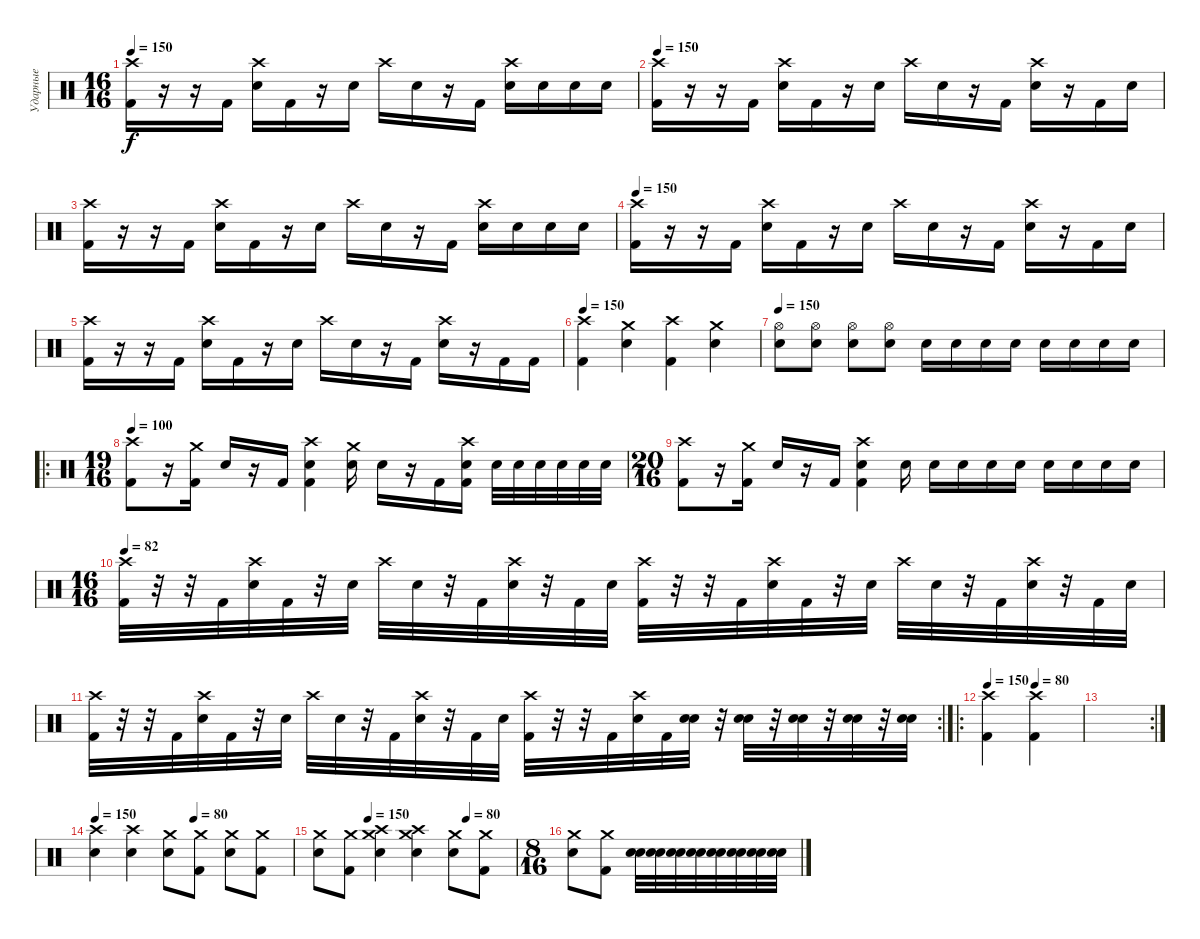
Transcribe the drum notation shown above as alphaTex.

\track ("Ударные" "Ударные") {instrument percussion}
\staff {score}
\articulation defaults
\ts (16 16)
\tempo 150
\clef neutral
\ks c
("Crash high (hit)" "Kick (hit) 2").16{dy f} r.16 r.16 "Kick (hit) 2".16 ("Crash high (hit)" "Electric Snare (hit)").16 "Kick (hit) 2".16 r.16 "Electric Snare (hit)".16 "Crash high (hit)".16 "Electric Snare (hit)".16 r.16 "Kick (hit) 2".16 ("Crash high (hit)" "Electric Snare (hit)").16 "Electric Snare (hit)".16 "Electric Snare (hit)".16 "Electric Snare (hit)".16 |
\tempo 150
("Crash high (hit)" "Kick (hit) 2").16 r.16 r.16 "Kick (hit) 2".16 ("Crash high (hit)" "Electric Snare (hit)").16 "Kick (hit) 2".16 r.16 "Electric Snare (hit)".16 "Crash high (hit)".16 "Electric Snare (hit)".16 r.16 "Kick (hit) 2".16 ("Crash high (hit)" "Electric Snare (hit)").16 r.16 "Kick (hit) 2".16 "Electric Snare (hit)".16 |
("Crash high (hit)" "Kick (hit) 2").16 r.16 r.16 "Kick (hit) 2".16 ("Crash high (hit)" "Electric Snare (hit)").16 "Kick (hit) 2".16 r.16 "Electric Snare (hit)".16 "Crash high (hit)".16 "Electric Snare (hit)".16 r.16 "Kick (hit) 2".16 ("Crash high (hit)" "Electric Snare (hit)").16 "Electric Snare (hit)".16 "Electric Snare (hit)".16 "Electric Snare (hit)".16 |
\tempo 150
("Crash high (hit)" "Kick (hit) 2").16 r.16 r.16 "Kick (hit) 2".16 ("Crash high (hit)" "Electric Snare (hit)").16 "Kick (hit) 2".16 r.16 "Electric Snare (hit)".16 "Crash high (hit)".16 "Electric Snare (hit)".16 r.16 "Kick (hit) 2".16 ("Crash high (hit)" "Electric Snare (hit)").16 r.16 "Kick (hit) 2".16 "Electric Snare (hit)".16 |
("Crash high (hit)" "Kick (hit) 2").16 r.16 r.16 "Kick (hit) 2".16 ("Crash high (hit)" "Electric Snare (hit)").16 "Kick (hit) 2".16 r.16 "Electric Snare (hit)".16 "Crash high (hit)".16 "Electric Snare (hit)".16 r.16 "Kick (hit) 2".16 ("Crash high (hit)" "Electric Snare (hit)").16 r.16 "Kick (hit) 2".16 "Kick (hit) 2".16 |
\tempo 150
("Crash high (hit)" "Kick (hit) 2").4 ("Electric Snare (hit)" "Crash medium (hit)").4 ("Kick (hit) 2" "Crash high (hit)").4 ("Crash medium (hit)" "Electric Snare (hit)").4 |
\tempo 150
("Hi-Hat (open)" "Snare (hit) 2").8 ("Hi-Hat (open)" "Snare (hit) 2").8 ("Hi-Hat (open)" "Snare (hit) 2").8 ("Hi-Hat (open)" "Snare (hit) 2").8 "Electric Snare (hit)".16 "Electric Snare (hit)".16 "Electric Snare (hit)".16 "Electric Snare (hit)".16 "Electric Snare (hit)".16 "Electric Snare (hit)".16 "Electric Snare (hit)".16 "Electric Snare (hit)".16 |
\ro
\ts (19 16)
\tempo 100
("Crash high (hit)" "Kick (hit) 2").8 r.16 ("Crash medium (hit)" "Kick (hit) 2").16 "Electric Snare (hit)".16 r.16 "Kick (hit) 2".16 ("Crash high (hit)" "Electric Snare (hit)" "Kick (hit) 2").4 ("Crash medium (hit)" "Snare (hit) 2").16 "Electric Snare (hit)".16 r.16 "Kick (hit) 2".16 ("Crash high (hit)" "Kick (hit) 2" "Electric Snare (hit)").16 "Electric Snare (hit)".32 "Electric Snare (hit)".32 "Electric Snare (hit)".32 "Electric Snare (hit)".32 "Electric Snare (hit)".32 "Electric Snare (hit)".32 |
\ts (20 16)
("Crash high (hit)" "Kick (hit) 2").8 r.16 ("Crash medium (hit)" "Kick (hit) 2").16 "Electric Snare (hit)".16 r.16 "Kick (hit) 2".16 ("Crash high (hit)" "Electric Snare (hit)" "Kick (hit) 2").4 "Snare (hit) 2".16 "Snare (hit) 2".16 "Snare (hit) 2".16 "Snare (hit) 2".16 "Snare (hit) 2".16 "Electric Snare (hit)".16 "Electric Snare (hit)".16 "Electric Snare (hit)".16 "Electric Snare (hit)".16 |
\ts (16 16)
\tempo 82
("Crash high (hit)" "Kick (hit) 2").32 r.32 r.32 "Kick (hit) 2".32 ("Crash high (hit)" "Electric Snare (hit)").32 "Kick (hit) 2".32 r.32 "Electric Snare (hit)".32 "Crash high (hit)".32 "Electric Snare (hit)".32 r.32 "Kick (hit) 2".32 ("Crash high (hit)" "Electric Snare (hit)").32 r.32 "Kick (hit) 2".32 "Electric Snare (hit)".32 ("Crash high (hit)" "Kick (hit) 2").32 r.32 r.32 "Kick (hit) 2".32 ("Crash high (hit)" "Electric Snare (hit)").32 "Kick (hit) 2".32 r.32 "Electric Snare (hit)".32 "Crash high (hit)".32 "Electric Snare (hit)".32 r.32 "Kick (hit) 2".32 ("Crash high (hit)" "Electric Snare (hit)").32 r.32 "Kick (hit) 2".32 "Electric Snare (hit)".32 |
\rc 2
("Crash high (hit)" "Kick (hit) 2").32 r.32 r.32 "Kick (hit) 2".32 ("Crash high (hit)" "Electric Snare (hit)").32 "Kick (hit) 2".32 r.32 "Electric Snare (hit)".32 "Crash high (hit)".32 "Electric Snare (hit)".32 r.32 "Kick (hit) 2".32 ("Crash high (hit)" "Electric Snare (hit)").32 r.32 "Kick (hit) 2".32 "Electric Snare (hit)".32 ("Crash high (hit)" "Kick (hit) 2").32 r.32 r.32 "Kick (hit) 2".32 ("Crash high (hit)" "Electric Snare (hit)").32 "Kick (hit) 2".32 ("Snare (hit) 2" "Electric Snare (hit)").32 r.32 ("Snare (hit) 2" "Electric Snare (hit)").32 r.32 ("Snare (hit) 2" "Electric Snare (hit)").32 r.32 ("Snare (hit) 2" "Electric Snare (hit)").32 r.32 ("Snare (hit) 2" "Electric Snare (hit)").32 |
\ro
\tempo 150
\tempo (80 0.5)
("Crash high (hit)" "Kick (hit) 2").4 ("Crash high (hit)" "Kick (hit) 2").4 |
\rc 2
|
\tempo 150
\tempo (80 0.5)
("Crash high (hit)" "Snare (hit) 2").4 ("Crash high (hit)" "Snare (hit) 2").4 ("Electric Snare (hit)" "Crash medium (hit)").8 ("Kick (hit) 2" "Crash medium (hit)").8 ("Crash medium (hit)" "Electric Snare (hit)").8 ("Kick (hit) 2" "Crash medium (hit)").8 |
\tempo (150 0.25)
\tempo (80 0.75)
("Crash medium (hit)" "Electric Snare (hit)").8 ("Kick (hit) 2" "Crash medium (hit)").8 ("Crash medium (hit)" "Crash high (hit)" "Snare (hit) 2").4 ("Crash medium (hit)" "Snare (hit) 2" "Crash high (hit)").4 ("Crash medium (hit)" "Electric Snare (hit)").8 ("Crash medium (hit)" "Kick (hit) 2").8 |
\ts (8 16)
("Crash medium (hit)" "Electric Snare (hit)").8 ("Kick (hit) 2" "Crash medium (hit)").8 ("Snare (hit) 2" "Electric Snare (hit)").32 ("Electric Snare (hit)" "Snare (hit) 2").32 ("Electric Snare (hit)" "Snare (hit) 2").32 ("Snare (hit) 2" "Electric Snare (hit)").32 ("Snare (hit) 2" "Electric Snare (hit)").32 ("Electric Snare (hit)" "Snare (hit) 2").32 ("Electric Snare (hit)" "Snare (hit) 2").32 ("Snare (hit) 2" "Electric Snare (hit)").32
